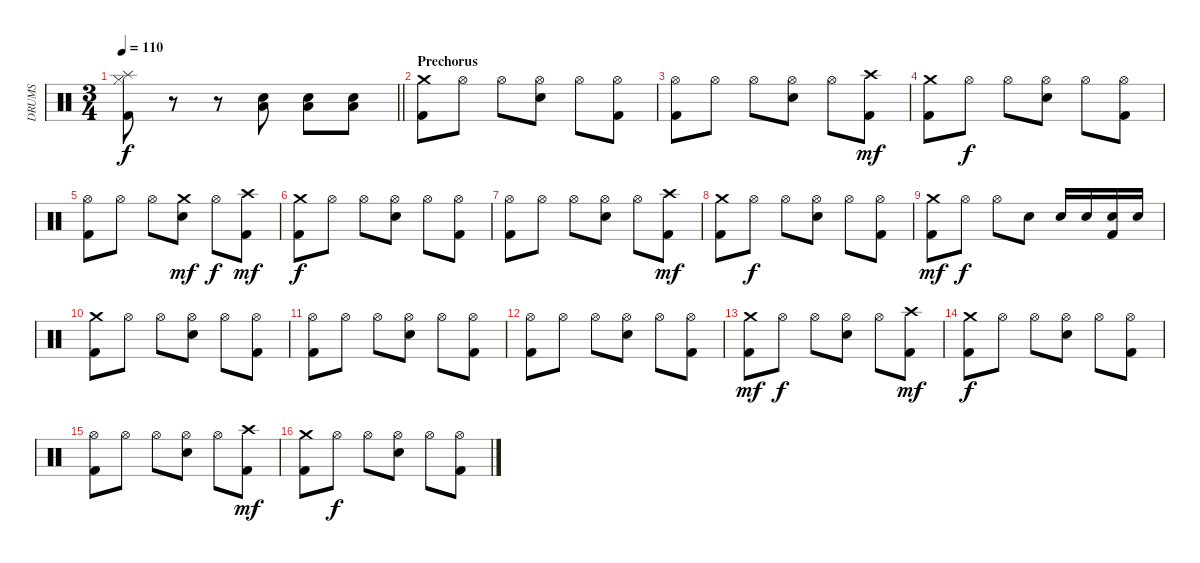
\track ("DRUMS" "DRUMS") {instrument percussion}
\staff {score}
\articulation defaults
\ts (3 4)
\tempo 110
\clef neutral
\barLineRight lightlight
\ks c
("Kick (hit) 2" "Hi-Hat (closed)" "Splash (hit)").8{dy f} r.8 r.8 ("Electric Snare (hit)" "Low Floor Tom (hit)").8 ("Electric Snare (hit)" "Low Floor Tom (hit)").8 ("Electric Snare (hit)" "Low Floor Tom (hit)").8 |
\section ("" "Prechorus")
("Crash medium (hit)" "Kick (hit) 2").8 "Hi-Hat (open)".8 "Hi-Hat (open)".8 ("Hi-Hat (open)" "Snare (hit) 2").8 "Hi-Hat (open)".8 ("Hi-Hat (open)" "Kick (hit) 2").8 |
("Hi-Hat (open)" "Kick (hit) 2").8 "Hi-Hat (open)".8 "Hi-Hat (open)".8 ("Hi-Hat (open)" "Snare (hit) 2").8 "Hi-Hat (open)".8 ("Crash high (hit)" "Kick (hit) 2").8{dy mf} |
("Crash medium (hit)" "Kick (hit) 2").8 "Hi-Hat (open)".8{dy f} "Hi-Hat (open)".8 ("Hi-Hat (open)" "Snare (hit) 2").8 "Hi-Hat (open)".8 ("Hi-Hat (open)" "Kick (hit) 2").8 |
("Hi-Hat (open)" "Kick (hit) 2").8 "Hi-Hat (open)".8 "Hi-Hat (open)".8 ("Crash medium (hit)" "Snare (hit) 2").8{dy mf} "Hi-Hat (open)".8{dy f} ("Crash high (hit)" "Kick (hit) 2").8{dy mf} |
("Crash medium (hit)" "Kick (hit) 2").8{dy f} "Hi-Hat (open)".8 "Hi-Hat (open)".8 ("Hi-Hat (open)" "Snare (hit) 2").8 "Hi-Hat (open)".8 ("Hi-Hat (open)" "Kick (hit) 2").8 |
("Hi-Hat (open)" "Kick (hit) 2").8 "Hi-Hat (open)".8 "Hi-Hat (open)".8 ("Hi-Hat (open)" "Snare (hit) 2").8 "Hi-Hat (open)".8 ("Crash high (hit)" "Kick (hit) 2").8{dy mf} |
("Crash medium (hit)" "Kick (hit) 2").8 "Hi-Hat (open)".8{dy f} "Hi-Hat (open)".8 ("Hi-Hat (open)" "Snare (hit) 2").8 "Hi-Hat (open)".8 ("Hi-Hat (open)" "Kick (hit) 2").8 |
("Crash medium (hit)" "Kick (hit) 2").8{dy mf} "Hi-Hat (open)".8{dy f} "Hi-Hat (open)".8 "Snare (hit) 2".8 "Snare (hit) 2".16 "Snare (hit) 2".16 ("Snare (hit) 2" "Kick (hit) 2").16 "Snare (hit) 2".16 |
("Crash medium (hit)" "Kick (hit) 2").8 "Hi-Hat (open)".8 "Hi-Hat (open)".8 ("Hi-Hat (open)" "Snare (hit) 2").8 "Hi-Hat (open)".8 ("Hi-Hat (open)" "Kick (hit) 2").8 |
("Hi-Hat (open)" "Kick (hit) 2").8 "Hi-Hat (open)".8 "Hi-Hat (open)".8 ("Hi-Hat (open)" "Snare (hit) 2").8 "Hi-Hat (open)".8 ("Hi-Hat (open)" "Kick (hit) 2").8 |
("Hi-Hat (open)" "Kick (hit) 2").8 "Hi-Hat (open)".8 "Hi-Hat (open)".8 ("Hi-Hat (open)" "Snare (hit) 2").8 "Hi-Hat (open)".8 ("Hi-Hat (open)" "Kick (hit) 2").8 |
("Crash medium (hit)" "Kick (hit) 2").8{dy mf} "Hi-Hat (open)".8{dy f} "Hi-Hat (open)".8 ("Hi-Hat (open)" "Snare (hit) 2").8 "Hi-Hat (open)".8 ("Crash high (hit)" "Kick (hit) 2").8{dy mf} |
("Crash medium (hit)" "Kick (hit) 2").8{dy f} "Hi-Hat (open)".8 "Hi-Hat (open)".8 ("Hi-Hat (open)" "Snare (hit) 2").8 "Hi-Hat (open)".8 ("Hi-Hat (open)" "Kick (hit) 2").8 |
("Hi-Hat (open)" "Kick (hit) 2").8 "Hi-Hat (open)".8 "Hi-Hat (open)".8 ("Hi-Hat (open)" "Snare (hit) 2").8 "Hi-Hat (open)".8 ("Crash high (hit)" "Kick (hit) 2").8{dy mf} |
("Crash medium (hit)" "Kick (hit) 2").8 "Hi-Hat (open)".8{dy f} "Hi-Hat (open)".8 ("Hi-Hat (open)" "Snare (hit) 2").8 "Hi-Hat (open)".8 ("Hi-Hat (open)" "Kick (hit) 2").8
